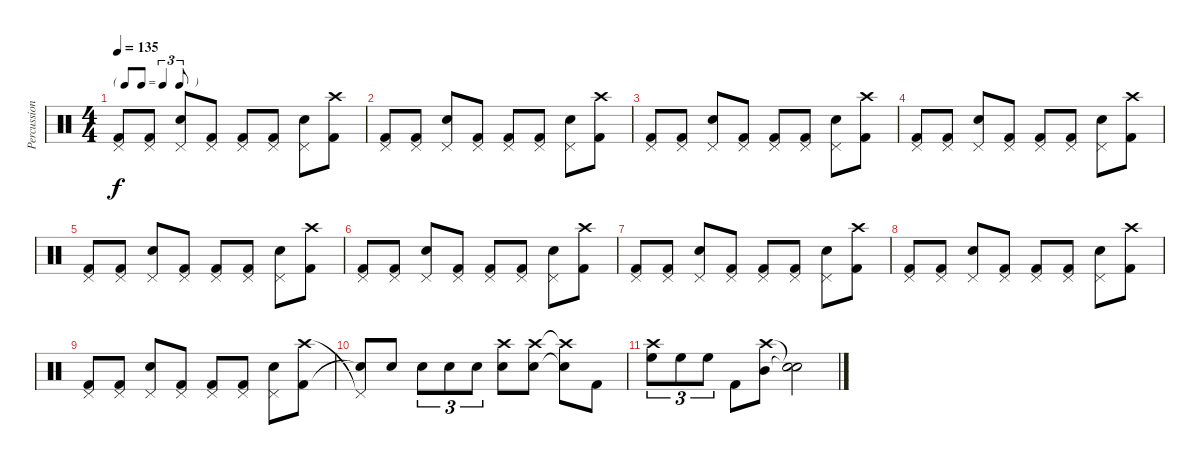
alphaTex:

\track ("Percussion" "Percussion") {instrument percussion}
\staff {score}
\articulation defaults
\ts (4 4)
\tf triplet8th
\tempo 135
\clef neutral
\ks c
("Pedal Hi-Hat (hit)" "Kick (hit) 2").8{dy f} ("Pedal Hi-Hat (hit)" "Kick (hit) 2").8 ("Pedal Hi-Hat (hit)" "Electric Snare (hit)").8 ("Pedal Hi-Hat (hit)" "Kick (hit) 2").8 ("Pedal Hi-Hat (hit)" "Kick (hit) 2").8 ("Pedal Hi-Hat (hit)" "Kick (hit) 2").8 ("Pedal Hi-Hat (hit)" "Electric Snare (hit)").8 ("Crash high (hit)" "Kick (hit) 2").8 |
("Pedal Hi-Hat (hit)" "Kick (hit) 2").8 ("Pedal Hi-Hat (hit)" "Kick (hit) 2").8 ("Pedal Hi-Hat (hit)" "Electric Snare (hit)").8 ("Pedal Hi-Hat (hit)" "Kick (hit) 2").8 ("Pedal Hi-Hat (hit)" "Kick (hit) 2").8 ("Pedal Hi-Hat (hit)" "Kick (hit) 2").8 ("Pedal Hi-Hat (hit)" "Electric Snare (hit)").8 ("Crash high (hit)" "Kick (hit) 2").8 |
("Pedal Hi-Hat (hit)" "Kick (hit) 2").8 ("Pedal Hi-Hat (hit)" "Kick (hit) 2").8 ("Pedal Hi-Hat (hit)" "Electric Snare (hit)").8 ("Pedal Hi-Hat (hit)" "Kick (hit) 2").8 ("Pedal Hi-Hat (hit)" "Kick (hit) 2").8 ("Pedal Hi-Hat (hit)" "Kick (hit) 2").8 ("Pedal Hi-Hat (hit)" "Electric Snare (hit)").8 ("Crash high (hit)" "Kick (hit) 2").8 |
("Pedal Hi-Hat (hit)" "Kick (hit) 2").8 ("Pedal Hi-Hat (hit)" "Kick (hit) 2").8 ("Pedal Hi-Hat (hit)" "Electric Snare (hit)").8 ("Pedal Hi-Hat (hit)" "Kick (hit) 2").8 ("Pedal Hi-Hat (hit)" "Kick (hit) 2").8 ("Pedal Hi-Hat (hit)" "Kick (hit) 2").8 ("Pedal Hi-Hat (hit)" "Electric Snare (hit)").8 ("Crash high (hit)" "Kick (hit) 2").8 |
("Pedal Hi-Hat (hit)" "Kick (hit) 2").8 ("Pedal Hi-Hat (hit)" "Kick (hit) 2").8 ("Pedal Hi-Hat (hit)" "Electric Snare (hit)").8 ("Pedal Hi-Hat (hit)" "Kick (hit) 2").8 ("Pedal Hi-Hat (hit)" "Kick (hit) 2").8 ("Pedal Hi-Hat (hit)" "Kick (hit) 2").8 ("Pedal Hi-Hat (hit)" "Electric Snare (hit)").8 ("Crash high (hit)" "Kick (hit) 2").8 |
("Pedal Hi-Hat (hit)" "Kick (hit) 2").8 ("Pedal Hi-Hat (hit)" "Kick (hit) 2").8 ("Pedal Hi-Hat (hit)" "Electric Snare (hit)").8 ("Pedal Hi-Hat (hit)" "Kick (hit) 2").8 ("Pedal Hi-Hat (hit)" "Kick (hit) 2").8 ("Pedal Hi-Hat (hit)" "Kick (hit) 2").8 ("Pedal Hi-Hat (hit)" "Electric Snare (hit)").8 ("Crash high (hit)" "Kick (hit) 2").8 |
("Pedal Hi-Hat (hit)" "Kick (hit) 2").8 ("Pedal Hi-Hat (hit)" "Kick (hit) 2").8 ("Pedal Hi-Hat (hit)" "Electric Snare (hit)").8 ("Pedal Hi-Hat (hit)" "Kick (hit) 2").8 ("Pedal Hi-Hat (hit)" "Kick (hit) 2").8 ("Pedal Hi-Hat (hit)" "Kick (hit) 2").8 ("Pedal Hi-Hat (hit)" "Electric Snare (hit)").8 ("Crash high (hit)" "Kick (hit) 2").8 |
("Pedal Hi-Hat (hit)" "Kick (hit) 2").8 ("Pedal Hi-Hat (hit)" "Kick (hit) 2").8 ("Pedal Hi-Hat (hit)" "Electric Snare (hit)").8 ("Pedal Hi-Hat (hit)" "Kick (hit) 2").8 ("Pedal Hi-Hat (hit)" "Kick (hit) 2").8 ("Pedal Hi-Hat (hit)" "Kick (hit) 2").8 ("Pedal Hi-Hat (hit)" "Electric Snare (hit)").8 ("Crash high (hit)" "Kick (hit) 2").8 |
("Pedal Hi-Hat (hit)" "Kick (hit) 2").8 ("Pedal Hi-Hat (hit)" "Kick (hit) 2").8 ("Pedal Hi-Hat (hit)" "Electric Snare (hit)").8 ("Pedal Hi-Hat (hit)" "Kick (hit) 2").8 ("Pedal Hi-Hat (hit)" "Kick (hit) 2").8 ("Pedal Hi-Hat (hit)" "Kick (hit) 2").8 ("Pedal Hi-Hat (hit)" "Electric Snare (hit)").8 ("Crash high (hit)" "Kick (hit) 2").8 |
("Pedal Hi-Hat (hit)"{t} "Snare (hit)"{t}).8 "Electric Snare (hit)".8 "Electric Snare (hit)".8{tu (3 2)} "Electric Snare (hit)".8{tu (3 2)} "Electric Snare (hit)".8{tu (3 2)} ("Crash high (hit)" "Electric Snare (hit)").8 ("Crash high (hit)" "Electric Snare (hit)").8 ("Crash high (hit)"{t} "Electric Snare (hit)"{t}).8 "Kick (hit) 2".8 |
("Crash high (hit)" "High Floor Tom (hit)").8{tu (3 2)} "High Floor Tom (hit)".8{tu (3 2)} "High Floor Tom (hit)".8{tu (3 2)} "Kick (hit) 2".8 ("Crash high (hit)" "Mid Tom (hit)").8 ("Snare (hit)"{t} "Snare (hit)"{t}).2
